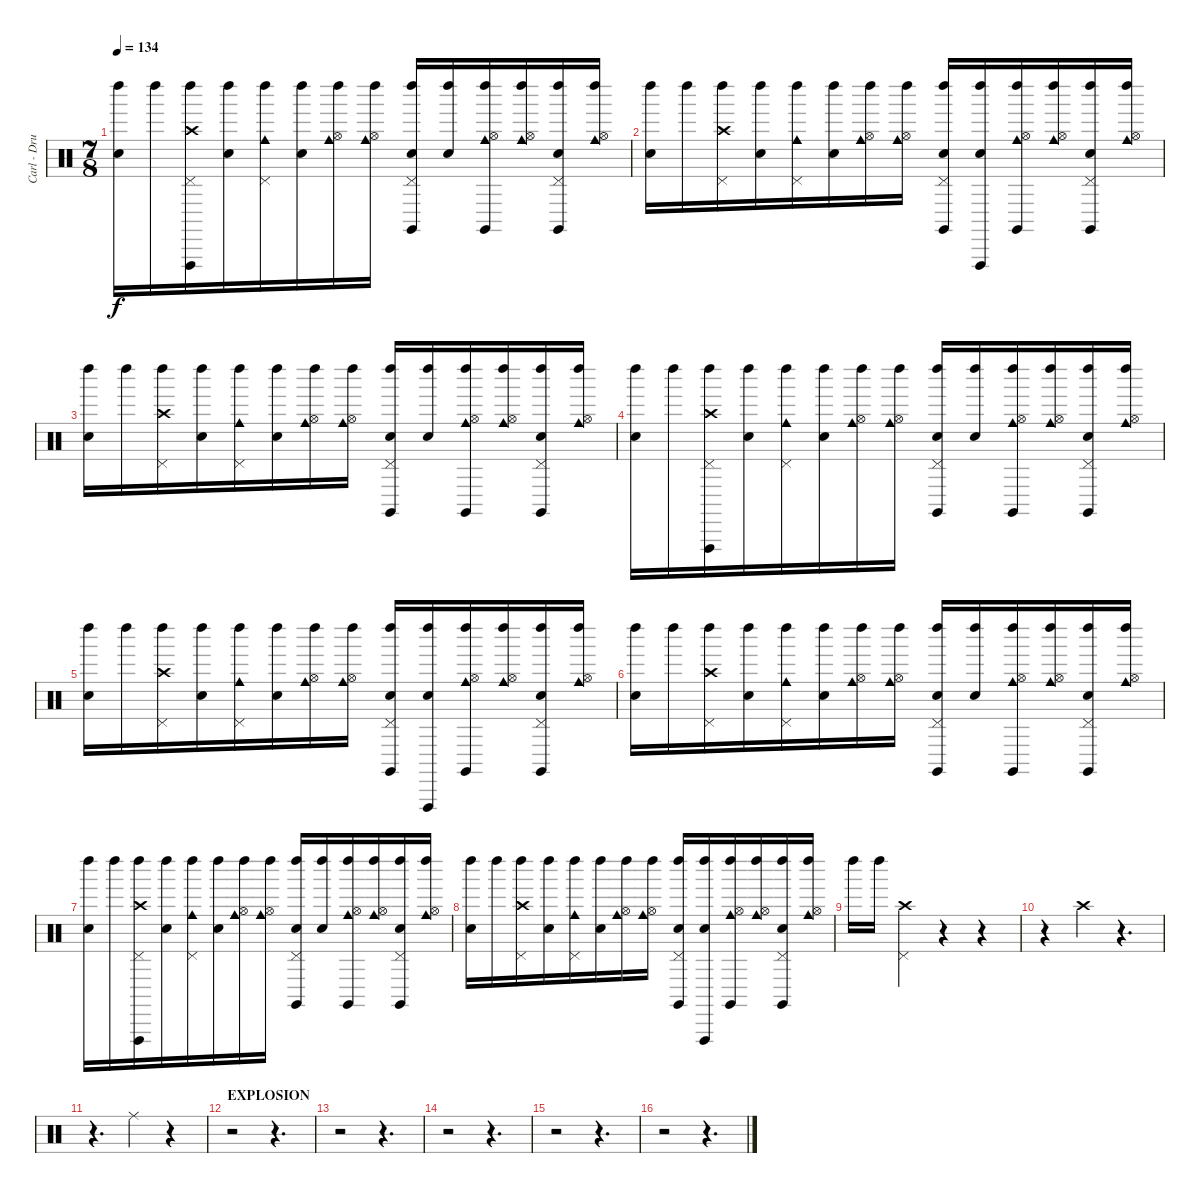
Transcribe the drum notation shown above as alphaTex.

\track ("Carl - Drums" "Carl - Dru") {instrument percussion}
\staff {score}
\articulation defaults
\ts (7 8)
\tempo 134
\clef neutral
\ks c
("Left Maraca (hit)" "Electric Snare (hit)").16{dy f} "Left Maraca (hit)".16 ("Left Maraca (hit)" "Vibraslap (hit)" "Crash high (hit)" "Pedal Hi-Hat (hit)").16 ("Left Maraca (hit)" "Electric Snare (hit)").16 ("Left Maraca (hit)" "Pedal Hi-Hat (hit)" "Cowbell medium (hit)").16 ("Left Maraca (hit)" "Electric Snare (hit)").16 ("Left Maraca (hit)" "Hi-Hat (open)" "Cowbell medium (hit)").16 ("Left Maraca (hit)" "Hi-Hat (open)" "Cowbell medium (hit)").16 ("Left Maraca (hit)" "Claves (hit)" "Electric Snare (hit)" "Pedal Hi-Hat (hit)").16 ("Left Maraca (hit)" "Electric Snare (hit)").16 ("Left Maraca (hit)" "Claves (hit)" "Hi-Hat (open)" "Cowbell medium (hit)").16 ("Left Maraca (hit)" "Hi-Hat (open)" "Cowbell medium (hit)").16 ("Left Maraca (hit)" "Claves (hit)" "Electric Snare (hit)" "Pedal Hi-Hat (hit)").16 ("Left Maraca (hit)" "Hi-Hat (open)" "Cowbell medium (hit)").16 |
("Left Maraca (hit)" "Electric Snare (hit)").16 "Left Maraca (hit)".16 ("Left Maraca (hit)" "Crash high (hit)" "Pedal Hi-Hat (hit)").16 ("Left Maraca (hit)" "Electric Snare (hit)").16 ("Left Maraca (hit)" "Pedal Hi-Hat (hit)" "Cowbell medium (hit)").16 ("Left Maraca (hit)" "Electric Snare (hit)").16 ("Left Maraca (hit)" "Hi-Hat (open)" "Cowbell medium (hit)").16 ("Left Maraca (hit)" "Hi-Hat (open)" "Cowbell medium (hit)").16 ("Left Maraca (hit)" "Claves (hit)" "Electric Snare (hit)" "Pedal Hi-Hat (hit)").16 ("Left Maraca (hit)" "Vibraslap (hit)" "Electric Snare (hit)").16 ("Left Maraca (hit)" "Claves (hit)" "Hi-Hat (open)" "Cowbell medium (hit)").16 ("Left Maraca (hit)" "Hi-Hat (open)" "Cowbell medium (hit)").16 ("Left Maraca (hit)" "Claves (hit)" "Electric Snare (hit)" "Pedal Hi-Hat (hit)").16 ("Left Maraca (hit)" "Hi-Hat (open)" "Cowbell medium (hit)").16 |
("Left Maraca (hit)" "Electric Snare (hit)").16 "Left Maraca (hit)".16 ("Left Maraca (hit)" "Crash high (hit)" "Pedal Hi-Hat (hit)").16 ("Left Maraca (hit)" "Electric Snare (hit)").16 ("Left Maraca (hit)" "Pedal Hi-Hat (hit)" "Cowbell medium (hit)").16 ("Left Maraca (hit)" "Electric Snare (hit)").16 ("Left Maraca (hit)" "Hi-Hat (open)" "Cowbell medium (hit)").16 ("Left Maraca (hit)" "Hi-Hat (open)" "Cowbell medium (hit)").16 ("Left Maraca (hit)" "Claves (hit)" "Electric Snare (hit)" "Pedal Hi-Hat (hit)").16 ("Left Maraca (hit)" "Electric Snare (hit)").16 ("Left Maraca (hit)" "Claves (hit)" "Hi-Hat (open)" "Cowbell medium (hit)").16 ("Left Maraca (hit)" "Hi-Hat (open)" "Cowbell medium (hit)").16 ("Left Maraca (hit)" "Claves (hit)" "Electric Snare (hit)" "Pedal Hi-Hat (hit)").16 ("Left Maraca (hit)" "Hi-Hat (open)" "Cowbell medium (hit)").16 |
("Left Maraca (hit)" "Electric Snare (hit)").16 "Left Maraca (hit)".16 ("Left Maraca (hit)" "Vibraslap (hit)" "Crash high (hit)" "Pedal Hi-Hat (hit)").16 ("Left Maraca (hit)" "Electric Snare (hit)").16 ("Left Maraca (hit)" "Pedal Hi-Hat (hit)" "Cowbell medium (hit)").16 ("Left Maraca (hit)" "Electric Snare (hit)").16 ("Left Maraca (hit)" "Hi-Hat (open)" "Cowbell medium (hit)").16 ("Left Maraca (hit)" "Hi-Hat (open)" "Cowbell medium (hit)").16 ("Left Maraca (hit)" "Claves (hit)" "Electric Snare (hit)" "Pedal Hi-Hat (hit)").16 ("Left Maraca (hit)" "Electric Snare (hit)").16 ("Left Maraca (hit)" "Claves (hit)" "Hi-Hat (open)" "Cowbell medium (hit)").16 ("Left Maraca (hit)" "Hi-Hat (open)" "Cowbell medium (hit)").16 ("Left Maraca (hit)" "Claves (hit)" "Electric Snare (hit)" "Pedal Hi-Hat (hit)").16 ("Left Maraca (hit)" "Hi-Hat (open)" "Cowbell medium (hit)").16 |
("Left Maraca (hit)" "Electric Snare (hit)").16 "Left Maraca (hit)".16 ("Left Maraca (hit)" "Crash high (hit)" "Pedal Hi-Hat (hit)").16 ("Left Maraca (hit)" "Electric Snare (hit)").16 ("Left Maraca (hit)" "Pedal Hi-Hat (hit)" "Cowbell medium (hit)").16 ("Left Maraca (hit)" "Electric Snare (hit)").16 ("Left Maraca (hit)" "Hi-Hat (open)" "Cowbell medium (hit)").16 ("Left Maraca (hit)" "Hi-Hat (open)" "Cowbell medium (hit)").16 ("Left Maraca (hit)" "Claves (hit)" "Electric Snare (hit)" "Pedal Hi-Hat (hit)").16 ("Left Maraca (hit)" "Vibraslap (hit)" "Electric Snare (hit)").16 ("Left Maraca (hit)" "Claves (hit)" "Hi-Hat (open)" "Cowbell medium (hit)").16 ("Left Maraca (hit)" "Hi-Hat (open)" "Cowbell medium (hit)").16 ("Left Maraca (hit)" "Claves (hit)" "Electric Snare (hit)" "Pedal Hi-Hat (hit)").16 ("Left Maraca (hit)" "Hi-Hat (open)" "Cowbell medium (hit)").16 |
("Left Maraca (hit)" "Electric Snare (hit)").16 "Left Maraca (hit)".16 ("Left Maraca (hit)" "Crash high (hit)" "Pedal Hi-Hat (hit)").16 ("Left Maraca (hit)" "Electric Snare (hit)").16 ("Left Maraca (hit)" "Pedal Hi-Hat (hit)" "Cowbell medium (hit)").16 ("Left Maraca (hit)" "Electric Snare (hit)").16 ("Left Maraca (hit)" "Hi-Hat (open)" "Cowbell medium (hit)").16 ("Left Maraca (hit)" "Hi-Hat (open)" "Cowbell medium (hit)").16 ("Left Maraca (hit)" "Claves (hit)" "Electric Snare (hit)" "Pedal Hi-Hat (hit)").16 ("Left Maraca (hit)" "Electric Snare (hit)").16 ("Left Maraca (hit)" "Claves (hit)" "Hi-Hat (open)" "Cowbell medium (hit)").16 ("Left Maraca (hit)" "Hi-Hat (open)" "Cowbell medium (hit)").16 ("Left Maraca (hit)" "Claves (hit)" "Electric Snare (hit)" "Pedal Hi-Hat (hit)").16 ("Left Maraca (hit)" "Hi-Hat (open)" "Cowbell medium (hit)").16 |
("Left Maraca (hit)" "Electric Snare (hit)").16 "Left Maraca (hit)".16 ("Left Maraca (hit)" "Vibraslap (hit)" "Crash high (hit)" "Pedal Hi-Hat (hit)").16 ("Left Maraca (hit)" "Electric Snare (hit)").16 ("Left Maraca (hit)" "Pedal Hi-Hat (hit)" "Cowbell medium (hit)").16 ("Left Maraca (hit)" "Electric Snare (hit)").16 ("Left Maraca (hit)" "Hi-Hat (open)" "Cowbell medium (hit)").16 ("Left Maraca (hit)" "Hi-Hat (open)" "Cowbell medium (hit)").16 ("Left Maraca (hit)" "Claves (hit)" "Electric Snare (hit)" "Pedal Hi-Hat (hit)").16 ("Left Maraca (hit)" "Electric Snare (hit)").16 ("Left Maraca (hit)" "Claves (hit)" "Hi-Hat (open)" "Cowbell medium (hit)").16 ("Left Maraca (hit)" "Hi-Hat (open)" "Cowbell medium (hit)").16 ("Left Maraca (hit)" "Claves (hit)" "Electric Snare (hit)" "Pedal Hi-Hat (hit)").16 ("Left Maraca (hit)" "Hi-Hat (open)" "Cowbell medium (hit)").16 |
("Left Maraca (hit)" "Electric Snare (hit)").16 "Left Maraca (hit)".16 ("Left Maraca (hit)" "Crash high (hit)" "Pedal Hi-Hat (hit)").16 ("Left Maraca (hit)" "Electric Snare (hit)").16 ("Left Maraca (hit)" "Pedal Hi-Hat (hit)" "Cowbell medium (hit)").16 ("Left Maraca (hit)" "Electric Snare (hit)").16 ("Left Maraca (hit)" "Hi-Hat (open)" "Cowbell medium (hit)").16 ("Left Maraca (hit)" "Hi-Hat (open)" "Cowbell medium (hit)").16 ("Left Maraca (hit)" "Claves (hit)" "Electric Snare (hit)" "Pedal Hi-Hat (hit)").16 ("Left Maraca (hit)" "Vibraslap (hit)" "Electric Snare (hit)").16 ("Left Maraca (hit)" "Claves (hit)" "Hi-Hat (open)" "Cowbell medium (hit)").16 ("Left Maraca (hit)" "Hi-Hat (open)" "Cowbell medium (hit)").16 ("Left Maraca (hit)" "Claves (hit)" "Electric Snare (hit)" "Pedal Hi-Hat (hit)").16 ("Left Maraca (hit)" "Hi-Hat (open)" "Cowbell medium (hit)").16 |
"Left Maraca (hit)".16 "Left Maraca (hit)".16 ("Crash high (hit)" "Pedal Hi-Hat (hit)").4 r.4 r.4 |
r.4 "Crash high (hit)".4 r.4{d} |
r.4{d} "Ride (middle)".4 r.4 |
\section ("" "EXPLOSION")
r.2 r.4{d} |
r.2 r.4{d} |
r.2 r.4{d} |
r.2 r.4{d} |
r.2 r.4{d}
